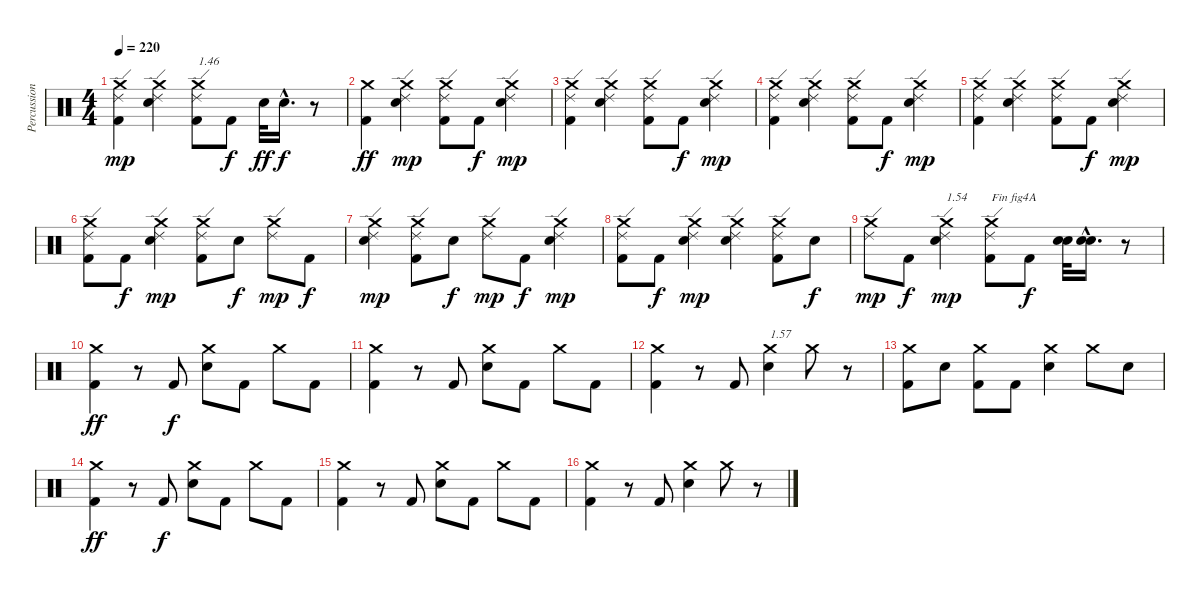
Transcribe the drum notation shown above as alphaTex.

\track ("Percussions" "Percussion") {instrument percussion}
\staff {score}
\articulation defaults
\ts (4 4)
\tempo 220
\clef neutral
\ks c
("Kick (hit) 2" "Ride (edge) 2" "Crash medium (hit)").4{dy mp} ("Electric Snare (hit)" "Ride (edge) 2" "Crash medium (hit)").4 ("Kick (hit) 2" "Ride (edge) 2" "Crash medium (hit)").8{txt "1.46"} "Kick (hit) 2".8{dy f} "Electric Snare (hit)".32{dy ff} "Electric Snare (hit)"{hac}.16{d dy f} r.8 |
("Kick (hit) 2" "Crash medium (hit)").4{dy ff} ("Electric Snare (hit)" "Ride (edge) 2" "Crash medium (hit)").4{dy mp} ("Kick (hit) 2" "Ride (edge) 2" "Crash medium (hit)").8 "Kick (hit) 2".8{dy f} ("Electric Snare (hit)" "Ride (edge) 2" "Crash medium (hit)").4{dy mp} |
("Kick (hit) 2" "Ride (edge) 2" "Crash medium (hit)").4 ("Electric Snare (hit)" "Ride (edge) 2" "Crash medium (hit)").4 ("Kick (hit) 2" "Ride (edge) 2" "Crash medium (hit)").8 "Kick (hit) 2".8{dy f} ("Electric Snare (hit)" "Ride (edge) 2" "Crash medium (hit)").4{dy mp} |
("Kick (hit) 2" "Ride (edge) 2" "Crash medium (hit)").4 ("Electric Snare (hit)" "Ride (edge) 2" "Crash medium (hit)").4 ("Kick (hit) 2" "Ride (edge) 2" "Crash medium (hit)").8 "Kick (hit) 2".8{dy f} ("Electric Snare (hit)" "Ride (edge) 2" "Crash medium (hit)").4{dy mp} |
("Kick (hit) 2" "Ride (edge) 2" "Crash medium (hit)").4 ("Electric Snare (hit)" "Ride (edge) 2" "Crash medium (hit)").4 ("Kick (hit) 2" "Ride (edge) 2" "Crash medium (hit)").8 "Kick (hit) 2".8{dy f} ("Electric Snare (hit)" "Ride (edge) 2" "Crash medium (hit)").4{dy mp} |
("Kick (hit) 2" "Ride (edge) 2" "Crash medium (hit)").8 "Kick (hit) 2".8{dy f} ("Electric Snare (hit)" "Ride (edge) 2" "Crash medium (hit)").4{dy mp} ("Kick (hit) 2" "Ride (edge) 2" "Crash medium (hit)").8 "Electric Snare (hit)".8{dy f} ("Ride (edge) 2" "Crash medium (hit)").8{dy mp} "Kick (hit) 2".8{dy f} |
("Electric Snare (hit)" "Ride (edge) 2" "Crash medium (hit)").4{dy mp} ("Kick (hit) 2" "Ride (edge) 2" "Crash medium (hit)").8 "Electric Snare (hit)".8{dy f} ("Ride (edge) 2" "Crash medium (hit)").8{dy mp} "Kick (hit) 2".8{dy f} ("Electric Snare (hit)" "Ride (edge) 2" "Crash medium (hit)").4{dy mp} |
("Kick (hit) 2" "Ride (edge) 2" "Crash medium (hit)").8 "Kick (hit) 2".8{dy f} ("Electric Snare (hit)" "Ride (edge) 2" "Crash medium (hit)").4{dy mp} ("Electric Snare (hit)" "Ride (edge) 2" "Crash medium (hit)").4 ("Kick (hit) 2" "Ride (edge) 2" "Crash medium (hit)").8 "Electric Snare (hit)".8{dy f} |
("Ride (edge) 2" "Crash medium (hit)").8{dy mp} "Kick (hit) 2".8{dy f} ("Electric Snare (hit)" "Ride (edge) 2" "Crash medium (hit)").4{txt "1.54" dy mp} ("Kick (hit) 2" "Ride (edge) 2" "Crash medium (hit)").8{txt "Fin fig4A"} "Kick (hit) 2".8{dy f} ("Electric Snare (hit)" "Snare (hit) 2").32 ("Electric Snare (hit)"{hac} "Snare (hit) 2"{hac}).16{d} r.8 |
("Kick (hit) 2" "Crash medium (hit)").4{dy ff} r.8 "Kick (hit) 2".8{dy f} ("Electric Snare (hit)" "Crash medium (hit)").8 "Kick (hit) 2".8 "Crash medium (hit)".8 "Kick (hit) 2".8 |
("Kick (hit) 2" "Crash medium (hit)").4 r.8 "Kick (hit) 2".8 ("Electric Snare (hit)" "Crash medium (hit)").8 "Kick (hit) 2".8 "Crash medium (hit)".8 "Kick (hit) 2".8 |
("Kick (hit) 2" "Crash medium (hit)").4 r.8 "Kick (hit) 2".8 ("Electric Snare (hit)" "Crash medium (hit)").4{txt "1.57"} "Crash medium (hit)".8 r.8 |
("Kick (hit) 2" "Crash medium (hit)").8 "Electric Snare (hit)".8 ("Kick (hit) 2" "Crash medium (hit)").8 "Kick (hit) 2".8 ("Electric Snare (hit)" "Crash medium (hit)").4 "Crash medium (hit)".8 "Electric Snare (hit)".8 |
("Kick (hit) 2" "Crash medium (hit)").4{dy ff} r.8 "Kick (hit) 2".8{dy f} ("Electric Snare (hit)" "Crash medium (hit)").8 "Kick (hit) 2".8 "Crash medium (hit)".8 "Kick (hit) 2".8 |
("Kick (hit) 2" "Crash medium (hit)").4 r.8 "Kick (hit) 2".8 ("Electric Snare (hit)" "Crash medium (hit)").8 "Kick (hit) 2".8 "Crash medium (hit)".8 "Kick (hit) 2".8 |
("Kick (hit) 2" "Crash medium (hit)").4 r.8 "Kick (hit) 2".8 ("Electric Snare (hit)" "Crash medium (hit)").4 "Crash medium (hit)".8 r.8
